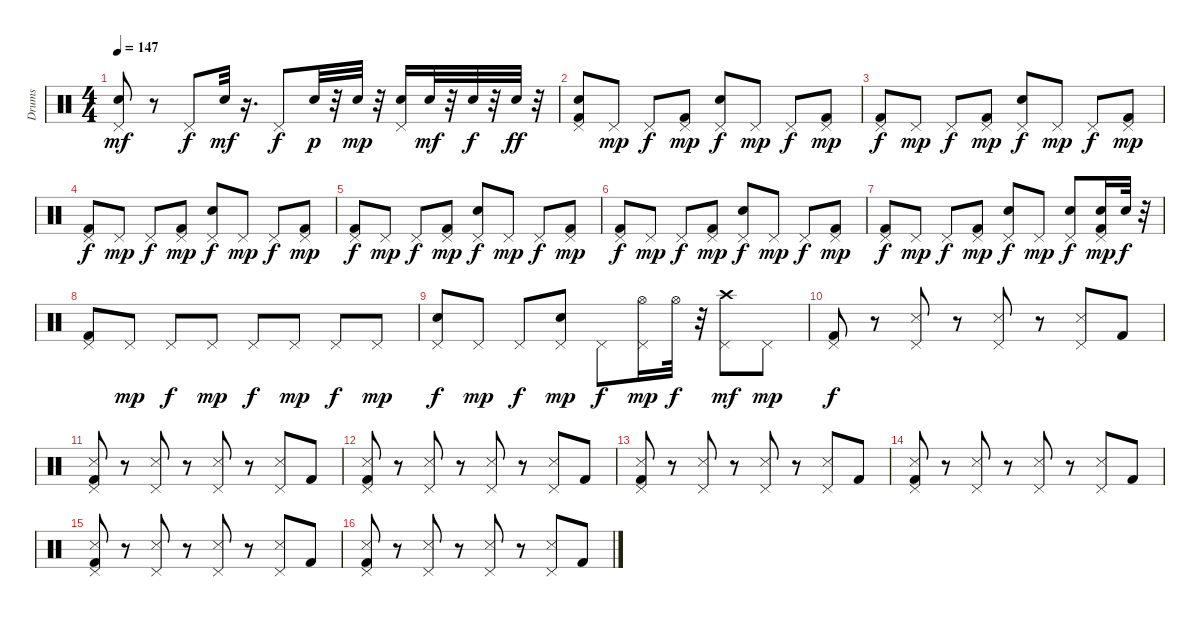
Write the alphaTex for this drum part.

\track ("Drums" "Drums") {instrument percussion}
\staff {score}
\articulation defaults
\ts (4 4)
\tempo 147
\clef neutral
\ks c
("Pedal Hi-Hat (hit)" "Snare (hit) 2").8{dy mf} r.8 "Pedal Hi-Hat (hit)".8{dy f} "Snare (hit) 2".32{dy mf} r.16{d} "Pedal Hi-Hat (hit)".8{dy f} "Snare (hit) 2".32{dy p} r.32 "Snare (hit) 2".32{dy mp} r.32 ("Pedal Hi-Hat (hit)" "Snare (hit) 2").16 "Snare (hit) 2".32{dy mf} r.32 "Snare (hit) 2".32{dy f} r.32 "Snare (hit) 2".32{dy ff} r.32 |
("Pedal Hi-Hat (hit)" "Kick (hit) 2" "Snare (hit) 2").8 "Pedal Hi-Hat (hit)".8{dy mp} "Pedal Hi-Hat (hit)".8{dy f} ("Pedal Hi-Hat (hit)" "Kick (hit) 2").8{dy mp} ("Pedal Hi-Hat (hit)" "Snare (hit) 2").8{dy f} "Pedal Hi-Hat (hit)".8{dy mp} "Pedal Hi-Hat (hit)".8{dy f} ("Pedal Hi-Hat (hit)" "Kick (hit) 2").8{dy mp} |
("Pedal Hi-Hat (hit)" "Kick (hit) 2").8{dy f} "Pedal Hi-Hat (hit)".8{dy mp} "Pedal Hi-Hat (hit)".8{dy f} ("Pedal Hi-Hat (hit)" "Kick (hit) 2").8{dy mp} ("Pedal Hi-Hat (hit)" "Snare (hit) 2").8{dy f} "Pedal Hi-Hat (hit)".8{dy mp} "Pedal Hi-Hat (hit)".8{dy f} ("Pedal Hi-Hat (hit)" "Kick (hit) 2").8{dy mp} |
("Pedal Hi-Hat (hit)" "Kick (hit) 2").8{dy f} "Pedal Hi-Hat (hit)".8{dy mp} "Pedal Hi-Hat (hit)".8{dy f} ("Pedal Hi-Hat (hit)" "Kick (hit) 2").8{dy mp} ("Pedal Hi-Hat (hit)" "Snare (hit) 2").8{dy f} "Pedal Hi-Hat (hit)".8{dy mp} "Pedal Hi-Hat (hit)".8{dy f} ("Pedal Hi-Hat (hit)" "Kick (hit) 2").8{dy mp} |
("Pedal Hi-Hat (hit)" "Kick (hit) 2").8{dy f} "Pedal Hi-Hat (hit)".8{dy mp} "Pedal Hi-Hat (hit)".8{dy f} ("Pedal Hi-Hat (hit)" "Kick (hit) 2").8{dy mp} ("Pedal Hi-Hat (hit)" "Snare (hit) 2").8{dy f} "Pedal Hi-Hat (hit)".8{dy mp} "Pedal Hi-Hat (hit)".8{dy f} ("Pedal Hi-Hat (hit)" "Kick (hit) 2").8{dy mp} |
("Pedal Hi-Hat (hit)" "Kick (hit) 2").8{dy f} "Pedal Hi-Hat (hit)".8{dy mp} "Pedal Hi-Hat (hit)".8{dy f} ("Pedal Hi-Hat (hit)" "Kick (hit) 2").8{dy mp} ("Pedal Hi-Hat (hit)" "Snare (hit) 2").8{dy f} "Pedal Hi-Hat (hit)".8{dy mp} "Pedal Hi-Hat (hit)".8{dy f} ("Pedal Hi-Hat (hit)" "Kick (hit) 2").8{dy mp} |
("Pedal Hi-Hat (hit)" "Kick (hit) 2").8{dy f} "Pedal Hi-Hat (hit)".8{dy mp} "Pedal Hi-Hat (hit)".8{dy f} ("Pedal Hi-Hat (hit)" "Kick (hit) 2").8{dy mp} ("Pedal Hi-Hat (hit)" "Snare (hit) 2").8{dy f} "Pedal Hi-Hat (hit)".8{dy mp} ("Pedal Hi-Hat (hit)" "Snare (hit) 2").8{dy f} ("Pedal Hi-Hat (hit)" "Snare (hit) 2" "Kick (hit) 2").16{dy mp} "Snare (hit) 2".32{dy f} r.32 |
("Pedal Hi-Hat (hit)" "Kick (hit) 2").8 "Pedal Hi-Hat (hit)".8{dy mp} "Pedal Hi-Hat (hit)".8{dy f} "Pedal Hi-Hat (hit)".8{dy mp} "Pedal Hi-Hat (hit)".8{dy f} "Pedal Hi-Hat (hit)".8{dy mp} "Pedal Hi-Hat (hit)".8{dy f} "Pedal Hi-Hat (hit)".8{dy mp} |
("Pedal Hi-Hat (hit)" "Snare (hit) 2").8{dy f} "Pedal Hi-Hat (hit)".8{dy mp} "Pedal Hi-Hat (hit)".8{dy f} ("Pedal Hi-Hat (hit)" "Snare (hit) 2").8{dy mp} "Pedal Hi-Hat (hit)".8{dy f} ("Pedal Hi-Hat (hit)" "Hi-Hat (open)").16{dy mp} "Hi-Hat (open)".32{dy f} r.32 ("Pedal Hi-Hat (hit)" "Crash high (hit)").8{dy mf} "Pedal Hi-Hat (hit)".8{dy mp} |
("Pedal Hi-Hat (hit)" "Kick (hit) 2").8{dy f} r.8 ("Pedal Hi-Hat (hit)" "Snare (side stick) 3").8 r.8 ("Pedal Hi-Hat (hit)" "Snare (side stick) 3").8 r.8 ("Pedal Hi-Hat (hit)" "Snare (side stick) 3").8 "Kick (hit) 2".8 |
("Pedal Hi-Hat (hit)" "Kick (hit) 2" "Snare (side stick) 3").8 r.8 ("Pedal Hi-Hat (hit)" "Snare (side stick) 3").8 r.8 ("Pedal Hi-Hat (hit)" "Snare (side stick) 3").8 r.8 ("Pedal Hi-Hat (hit)" "Snare (side stick) 3").8 "Kick (hit) 2".8 |
("Pedal Hi-Hat (hit)" "Kick (hit) 2" "Snare (side stick) 3").8 r.8 ("Pedal Hi-Hat (hit)" "Snare (side stick) 3").8 r.8 ("Pedal Hi-Hat (hit)" "Snare (side stick) 3").8 r.8 ("Pedal Hi-Hat (hit)" "Snare (side stick) 3").8 "Kick (hit) 2".8 |
("Pedal Hi-Hat (hit)" "Kick (hit) 2" "Snare (side stick) 3").8 r.8 ("Pedal Hi-Hat (hit)" "Snare (side stick) 3").8 r.8 ("Pedal Hi-Hat (hit)" "Snare (side stick) 3").8 r.8 ("Pedal Hi-Hat (hit)" "Snare (side stick) 3").8 "Kick (hit) 2".8 |
("Pedal Hi-Hat (hit)" "Kick (hit) 2" "Snare (side stick) 3").8 r.8 ("Pedal Hi-Hat (hit)" "Snare (side stick) 3").8 r.8 ("Pedal Hi-Hat (hit)" "Snare (side stick) 3").8 r.8 ("Pedal Hi-Hat (hit)" "Snare (side stick) 3").8 "Kick (hit) 2".8 |
("Pedal Hi-Hat (hit)" "Kick (hit) 2" "Snare (side stick) 3").8 r.8 ("Pedal Hi-Hat (hit)" "Snare (side stick) 3").8 r.8 ("Pedal Hi-Hat (hit)" "Snare (side stick) 3").8 r.8 ("Pedal Hi-Hat (hit)" "Snare (side stick) 3").8 "Kick (hit) 2".8 |
("Pedal Hi-Hat (hit)" "Kick (hit) 2" "Snare (side stick) 3").8 r.8 ("Pedal Hi-Hat (hit)" "Snare (side stick) 3").8 r.8 ("Pedal Hi-Hat (hit)" "Snare (side stick) 3").8 r.8 ("Pedal Hi-Hat (hit)" "Snare (side stick) 3").8 "Kick (hit) 2".8
